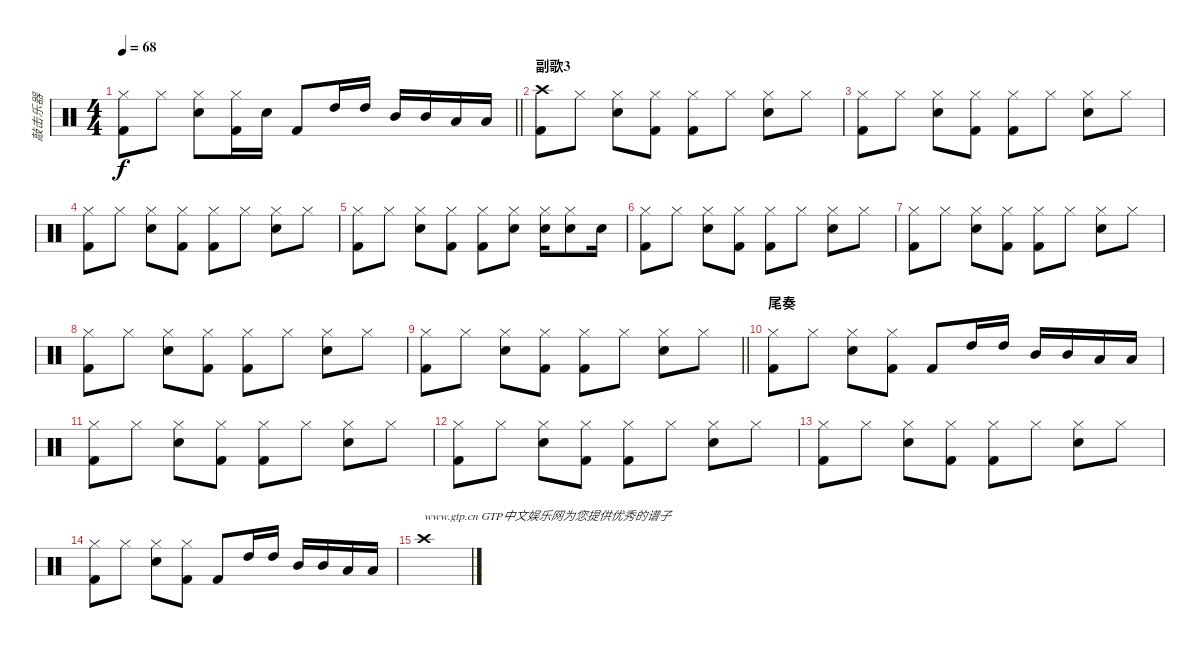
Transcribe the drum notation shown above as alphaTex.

\track ("敲击乐器" "敲击乐器") {instrument percussion}
\staff {score}
\articulation defaults
\ts (4 4)
\tempo 68
\clef neutral
\barLineRight lightlight
\ks c
("Hi-Hat (closed)" "Kick (hit) 2").8{dy f} "Hi-Hat (closed)".8 ("Hi-Hat (closed)" "Snare (hit) 2").8 ("Hi-Hat (closed)" "Kick (hit) 2").16 "Snare (hit) 2".16 "Kick (hit) 2".8 "High Tom (hit)".16 "High Tom (hit)".16 "Mid Tom (hit)".16 "Mid Tom (hit)".16 "Low Tom (hit)".16 "Low Tom (hit)".16 |
\section ("" "副歌3")
("Crash high (hit)" "Kick (hit) 2").8 "Hi-Hat (closed)".8 ("Hi-Hat (closed)" "Snare (hit) 2").8 ("Hi-Hat (closed)" "Kick (hit) 2").8 ("Hi-Hat (closed)" "Kick (hit) 2").8 "Hi-Hat (closed)".8 ("Hi-Hat (closed)" "Snare (hit) 2").8 "Hi-Hat (closed)".8 |
("Hi-Hat (closed)" "Kick (hit) 2").8 "Hi-Hat (closed)".8 ("Hi-Hat (closed)" "Snare (hit) 2").8 ("Hi-Hat (closed)" "Kick (hit) 2").8 ("Hi-Hat (closed)" "Kick (hit) 2").8 "Hi-Hat (closed)".8 ("Hi-Hat (closed)" "Snare (hit) 2").8 "Hi-Hat (closed)".8 |
("Hi-Hat (closed)" "Kick (hit) 2").8 "Hi-Hat (closed)".8 ("Hi-Hat (closed)" "Snare (hit) 2").8 ("Hi-Hat (closed)" "Kick (hit) 2").8 ("Hi-Hat (closed)" "Kick (hit) 2").8 "Hi-Hat (closed)".8 ("Hi-Hat (closed)" "Snare (hit) 2").8 "Hi-Hat (closed)".8 |
("Hi-Hat (closed)" "Kick (hit) 2").8 "Hi-Hat (closed)".8 ("Hi-Hat (closed)" "Snare (hit) 2").8 ("Hi-Hat (closed)" "Kick (hit) 2").8 ("Hi-Hat (closed)" "Kick (hit) 2").8 ("Hi-Hat (closed)" "Snare (hit) 2").8 ("Hi-Hat (closed)" "Snare (hit) 2").16 ("Hi-Hat (closed)" "Snare (hit) 2").8 "Snare (hit) 2".16 |
("Hi-Hat (closed)" "Kick (hit) 2").8 "Hi-Hat (closed)".8 ("Hi-Hat (closed)" "Snare (hit) 2").8 ("Hi-Hat (closed)" "Kick (hit) 2").8 ("Hi-Hat (closed)" "Kick (hit) 2").8 "Hi-Hat (closed)".8 ("Hi-Hat (closed)" "Snare (hit) 2").8 "Hi-Hat (closed)".8 |
("Hi-Hat (closed)" "Kick (hit) 2").8 "Hi-Hat (closed)".8 ("Hi-Hat (closed)" "Snare (hit) 2").8 ("Hi-Hat (closed)" "Kick (hit) 2").8 ("Hi-Hat (closed)" "Kick (hit) 2").8 "Hi-Hat (closed)".8 ("Hi-Hat (closed)" "Snare (hit) 2").8 "Hi-Hat (closed)".8 |
("Hi-Hat (closed)" "Kick (hit) 2").8 "Hi-Hat (closed)".8 ("Hi-Hat (closed)" "Snare (hit) 2").8 ("Hi-Hat (closed)" "Kick (hit) 2").8 ("Hi-Hat (closed)" "Kick (hit) 2").8 "Hi-Hat (closed)".8 ("Hi-Hat (closed)" "Snare (hit) 2").8 "Hi-Hat (closed)".8 |
\barLineRight lightlight
("Hi-Hat (closed)" "Kick (hit) 2").8 "Hi-Hat (closed)".8 ("Hi-Hat (closed)" "Snare (hit) 2").8 ("Hi-Hat (closed)" "Kick (hit) 2").8 ("Hi-Hat (closed)" "Kick (hit) 2").8 "Hi-Hat (closed)".8 ("Hi-Hat (closed)" "Snare (hit) 2").8 "Hi-Hat (closed)".8 |
\section ("" "尾奏")
("Hi-Hat (closed)" "Kick (hit) 2").8 "Hi-Hat (closed)".8 ("Hi-Hat (closed)" "Snare (hit) 2").8 ("Hi-Hat (closed)" "Kick (hit) 2").8 "Kick (hit) 2".8 "High Tom (hit)".16 "High Tom (hit)".16 "Mid Tom (hit)".16 "Mid Tom (hit)".16 "Low Tom (hit)".16 "Low Tom (hit)".16 |
("Hi-Hat (closed)" "Kick (hit) 2").8 "Hi-Hat (closed)".8 ("Hi-Hat (closed)" "Snare (hit) 2").8 ("Hi-Hat (closed)" "Kick (hit) 2").8 ("Hi-Hat (closed)" "Kick (hit) 2").8 "Hi-Hat (closed)".8 ("Hi-Hat (closed)" "Snare (hit) 2").8 "Hi-Hat (closed)".8 |
("Hi-Hat (closed)" "Kick (hit) 2").8 "Hi-Hat (closed)".8 ("Hi-Hat (closed)" "Snare (hit) 2").8 ("Hi-Hat (closed)" "Kick (hit) 2").8 ("Hi-Hat (closed)" "Kick (hit) 2").8 "Hi-Hat (closed)".8 ("Hi-Hat (closed)" "Snare (hit) 2").8 "Hi-Hat (closed)".8 |
("Hi-Hat (closed)" "Kick (hit) 2").8 "Hi-Hat (closed)".8 ("Hi-Hat (closed)" "Snare (hit) 2").8 ("Hi-Hat (closed)" "Kick (hit) 2").8 ("Hi-Hat (closed)" "Kick (hit) 2").8 "Hi-Hat (closed)".8 ("Hi-Hat (closed)" "Snare (hit) 2").8 "Hi-Hat (closed)".8 |
("Hi-Hat (closed)" "Kick (hit) 2").8 "Hi-Hat (closed)".8 ("Hi-Hat (closed)" "Snare (hit) 2").8 ("Hi-Hat (closed)" "Kick (hit) 2").8 "Kick (hit) 2".8 "High Tom (hit)".16 "High Tom (hit)".16 "Mid Tom (hit)".16 "Mid Tom (hit)".16 "Low Tom (hit)".16 "Low Tom (hit)".16 |
"Crash high (hit)".1{txt "www.gtp.cn GTP中文娱乐网为您提供优秀的谱子"}
